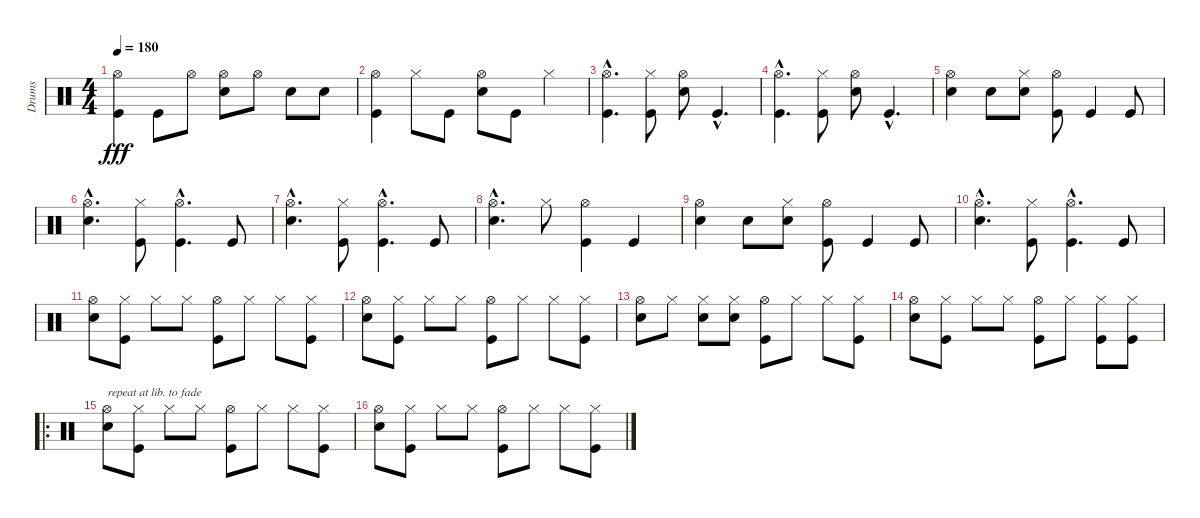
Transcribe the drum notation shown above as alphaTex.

\track ("Drums" "Drums") {instrument percussion}
\staff {score}
\articulation defaults
\ts (4 4)
\tempo 180
\clef neutral
\ks c
("Hi-Hat (open)" "Kick (hit)").4{dy fff} "Kick (hit)".8 "Hi-Hat (open)".8 ("Hi-Hat (open)" "Snare (hit) 2").8 "Hi-Hat (open)".8 "Snare (hit) 2".8 "Snare (hit) 2".8 |
("Hi-Hat (open)" "Kick (hit)").4 "Hi-Hat (closed)".8 "Kick (hit)".8 ("Hi-Hat (open)" "Snare (hit) 2").8 "Kick (hit)".8 "Hi-Hat (closed)".4 |
("Hi-Hat (open)"{hac} "Kick (hit)"{hac}).4{d} ("Hi-Hat (closed)" "Kick (hit)").8 ("Hi-Hat (open)" "Snare (hit) 2").8 "Kick (hit)"{hac}.4{d} |
("Hi-Hat (open)"{hac} "Kick (hit)"{hac}).4{d} ("Hi-Hat (closed)" "Kick (hit)").8 ("Hi-Hat (open)" "Snare (hit) 2").8 "Kick (hit)"{hac}.4{d} |
("Hi-Hat (open)" "Snare (hit) 2").4 "Snare (hit) 2".8 ("Hi-Hat (closed)" "Snare (hit) 2").8 ("Hi-Hat (open)" "Kick (hit)").8 "Kick (hit)".4 "Kick (hit)".8 |
("Hi-Hat (open)"{hac} "Snare (hit) 2"{hac}).4{d} ("Hi-Hat (closed)" "Kick (hit)").8 ("Hi-Hat (open)"{hac} "Kick (hit)"{hac}).4{d} "Kick (hit)".8 |
("Hi-Hat (open)"{hac} "Snare (hit) 2"{hac}).4{d} ("Hi-Hat (closed)" "Kick (hit)").8 ("Hi-Hat (open)"{hac} "Kick (hit)"{hac}).4{d} "Kick (hit)".8 |
("Hi-Hat (open)"{hac} "Snare (hit) 2"{hac}).4{d} "Hi-Hat (closed)".8 ("Hi-Hat (open)" "Kick (hit)").4 "Kick (hit)".4 |
("Hi-Hat (open)" "Snare (hit) 2").4 "Snare (hit) 2".8 ("Hi-Hat (closed)" "Snare (hit) 2").8 ("Hi-Hat (open)" "Kick (hit)").8 "Kick (hit)".4 "Kick (hit)".8 |
("Hi-Hat (open)"{hac} "Snare (hit) 2"{hac}).4{d} ("Hi-Hat (closed)" "Kick (hit)").8 ("Hi-Hat (open)"{hac} "Kick (hit)"{hac}).4{d} "Kick (hit)".8 |
("Hi-Hat (open)" "Snare (hit) 2").8 ("Hi-Hat (closed)" "Kick (hit)").8 "Hi-Hat (closed)".8 "Hi-Hat (closed)".8 ("Hi-Hat (open)" "Kick (hit)").8 "Hi-Hat (closed)".8 "Hi-Hat (closed)".8 ("Hi-Hat (closed)" "Kick (hit)").8 |
("Hi-Hat (open)" "Snare (hit) 2").8 ("Hi-Hat (closed)" "Kick (hit)").8 "Hi-Hat (closed)".8 "Hi-Hat (closed)".8 ("Hi-Hat (open)" "Kick (hit)").8 "Hi-Hat (closed)".8 "Hi-Hat (closed)".8 ("Hi-Hat (closed)" "Kick (hit)").8 |
("Hi-Hat (open)" "Snare (hit) 2").8 "Hi-Hat (closed)".8 ("Hi-Hat (closed)" "Snare (hit) 2").8 ("Hi-Hat (closed)" "Snare (hit) 2").8 ("Hi-Hat (open)" "Kick (hit)").8 "Hi-Hat (closed)".8 "Hi-Hat (closed)".8 ("Hi-Hat (closed)" "Kick (hit)").8 |
("Hi-Hat (open)" "Snare (hit) 2").8 ("Hi-Hat (closed)" "Kick (hit)").8 "Hi-Hat (closed)".8 "Hi-Hat (closed)".8 ("Hi-Hat (open)" "Kick (hit)").8 "Hi-Hat (closed)".8 ("Hi-Hat (closed)" "Kick (hit)").8 ("Hi-Hat (closed)" "Kick (hit)").8 |
\ro
("Hi-Hat (open)" "Snare (hit) 2").8{txt "repeat at lib. to fade"} ("Hi-Hat (closed)" "Kick (hit)").8 "Hi-Hat (closed)".8 "Hi-Hat (closed)".8 ("Hi-Hat (open)" "Kick (hit)").8 "Hi-Hat (closed)".8 "Hi-Hat (closed)".8 ("Hi-Hat (closed)" "Kick (hit)").8 |
("Hi-Hat (open)" "Snare (hit) 2").8 ("Hi-Hat (closed)" "Kick (hit)").8 "Hi-Hat (closed)".8 "Hi-Hat (closed)".8 ("Hi-Hat (open)" "Kick (hit)").8 "Hi-Hat (closed)".8 "Hi-Hat (closed)".8 ("Hi-Hat (closed)" "Kick (hit)").8
